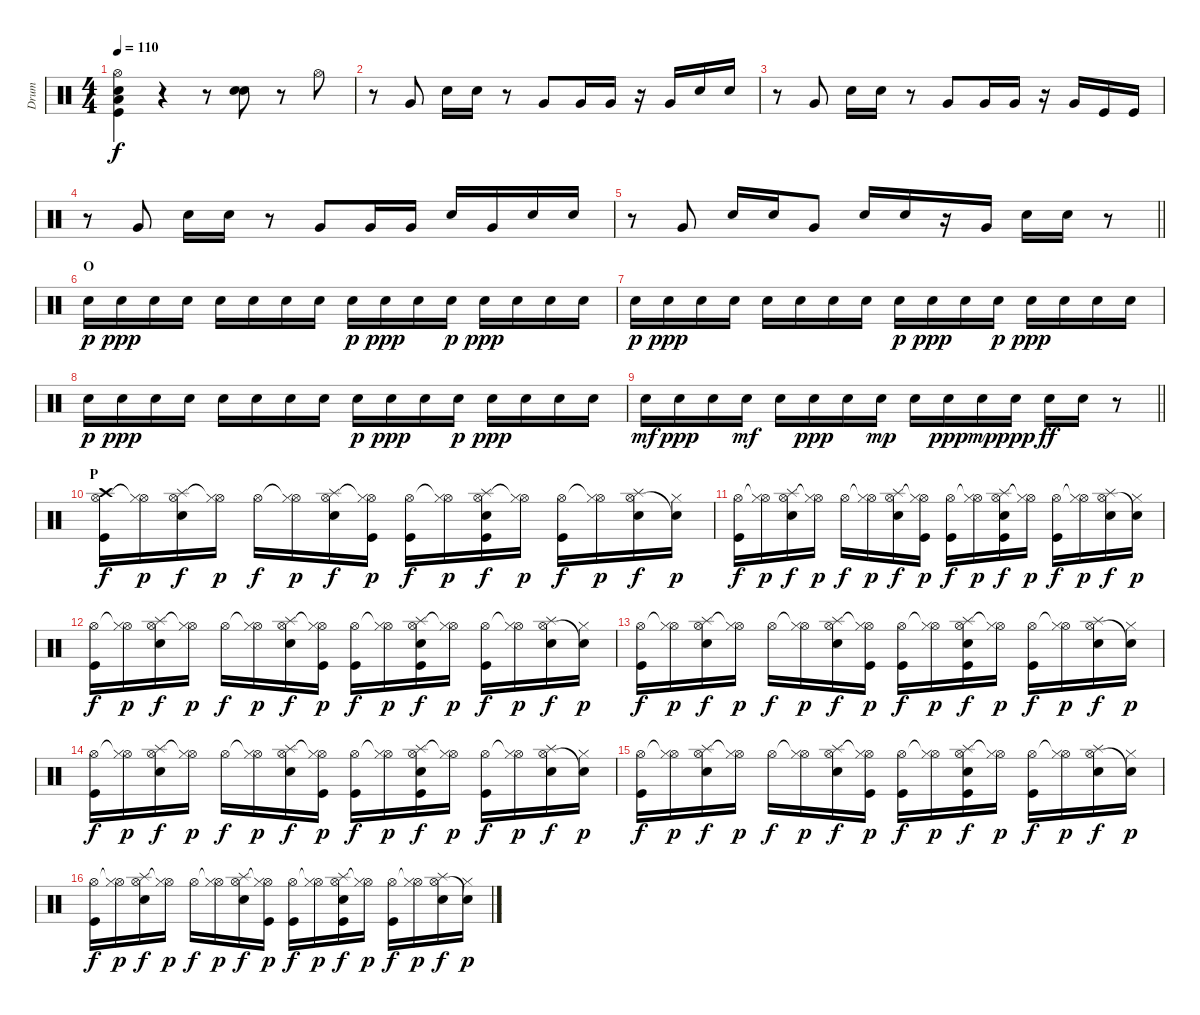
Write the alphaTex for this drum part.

\track ("Drum" "Drum") {instrument percussion}
\staff {score}
\articulation defaults
\ts (4 4)
\tempo 110
\clef neutral
\ks c
("Hi-Hat (open)" "Snare (hit) 2" "Low Tom (hit)" "Kick (hit)").4{dy f} r.4 r.8 ("Snare (hit) 2" "Electric Snare (hit)").8 r.8 "Hi-Hat (open)".8 |
r.8 "Very Low Tom (hit)".8 "Snare (hit) 2".16 "Snare (hit) 2".16 r.8 "Very Low Tom (hit)".8 "Very Low Tom (hit)".16 "Very Low Tom (hit)".16 r.16 "Very Low Tom (hit)".16 "Snare (hit) 2".16 "Snare (hit) 2".16 |
r.8 "Very Low Tom (hit)".8 "Snare (hit) 2".16 "Snare (hit) 2".16 r.8 "Very Low Tom (hit)".8 "Very Low Tom (hit)".16 "Very Low Tom (hit)".16 r.16 "Very Low Tom (hit)".16 "Kick (hit)".16 "Kick (hit)".16 |
r.8 "Very Low Tom (hit)".8 "Snare (hit) 2".16 "Snare (hit) 2".16 r.8 "Very Low Tom (hit)".8 "Very Low Tom (hit)".16 "Very Low Tom (hit)".16 "Snare (hit) 2".16 "Very Low Tom (hit)".16 "Snare (hit) 2".16 "Snare (hit) 2".16 |
\barLineRight lightlight
r.8 "Very Low Tom (hit)".8 "Snare (hit) 2".16 "Snare (hit) 2".16 "Very Low Tom (hit)".8 "Snare (hit) 2".16 "Snare (hit) 2".16 r.16 "Very Low Tom (hit)".16 "Snare (hit) 2".16 "Snare (hit) 2".16 r.8 |
\section ("" "O")
"Snare (hit) 2".16{dy p} "Snare (hit) 2".16{dy ppp} "Snare (hit) 2".16 "Snare (hit) 2".16 "Snare (hit) 2".16 "Snare (hit) 2".16 "Snare (hit) 2".16 "Snare (hit) 2".16 "Snare (hit) 2".16{dy p} "Snare (hit) 2".16{dy ppp} "Snare (hit) 2".16 "Snare (hit) 2".16{dy p} "Snare (hit) 2".16{dy ppp} "Snare (hit) 2".16 "Snare (hit) 2".16 "Snare (hit) 2".16 |
"Snare (hit) 2".16{dy p} "Snare (hit) 2".16{dy ppp} "Snare (hit) 2".16 "Snare (hit) 2".16 "Snare (hit) 2".16 "Snare (hit) 2".16 "Snare (hit) 2".16 "Snare (hit) 2".16 "Snare (hit) 2".16{dy p} "Snare (hit) 2".16{dy ppp} "Snare (hit) 2".16 "Snare (hit) 2".16{dy p} "Snare (hit) 2".16{dy ppp} "Snare (hit) 2".16 "Snare (hit) 2".16 "Snare (hit) 2".16 |
"Snare (hit) 2".16{dy p} "Snare (hit) 2".16{dy ppp} "Snare (hit) 2".16 "Snare (hit) 2".16 "Snare (hit) 2".16 "Snare (hit) 2".16 "Snare (hit) 2".16 "Snare (hit) 2".16 "Snare (hit) 2".16{dy p} "Snare (hit) 2".16{dy ppp} "Snare (hit) 2".16 "Snare (hit) 2".16{dy p} "Snare (hit) 2".16{dy ppp} "Snare (hit) 2".16 "Snare (hit) 2".16 "Snare (hit) 2".16 |
\barLineRight lightlight "Snare (hit) 2".16{dy mf} "Snare (hit) 2".16{dy ppp} "Snare (hit) 2".16 "Snare (hit) 2".16{dy mf} "Snare (hit) 2".16 "Snare (hit) 2".16{dy ppp} "Snare (hit) 2".16 "Snare (hit) 2".16{dy mp} "Snare (hit) 2".16 "Snare (hit) 2".16{dy ppp} "Snare (hit) 2".16{dy mp} "Snare (hit) 2".16{dy ppp} "Snare (hit) 2".16{dy ff} "Snare (hit) 2".16
r.8 |
\section ("" "P")
("Hi-Hat (open)" "Crash high (hit)" "Kick (hit)").16{dy f} ("Hi-Hat (open)"{t} "Hi-Hat (closed)").16{dy p} ("Hi-Hat (open)" "Splash (hit)" "Snare (hit) 2").16{dy f} ("Hi-Hat (open)"{t} "Hi-Hat (closed)").16{dy p} "Hi-Hat (open)".16{dy f} ("Hi-Hat (open)"{t} "Hi-Hat (closed)").16{dy p} ("Hi-Hat (open)" "Splash (hit)" "Snare (hit) 2").16{dy f} ("Hi-Hat (open)"{t} "Hi-Hat (closed)" "Kick (hit)").16{dy p} ("Hi-Hat (open)" "Kick (hit)").16{dy f} ("Hi-Hat (open)"{t} "Hi-Hat (closed)").16{dy p} ("Hi-Hat (open)" "Splash (hit)" "Snare (hit) 2" "Kick (hit)").16{dy f} ("Hi-Hat (open)"{t} "Hi-Hat (closed)").16{dy p} ("Hi-Hat (open)" "Kick (hit)").16{dy f} ("Hi-Hat (open)"{t} "Hi-Hat (closed)").16{dy p} ("Hi-Hat (open)" "Splash (hit)" "Snare (hit) 2").16{dy f} ("Snare (hit)"{t} "Hi-Hat (closed)").16{dy p} |
("Hi-Hat (open)" "Kick (hit)").16{dy f} ("Hi-Hat (open)"{t} "Hi-Hat (closed)").16{dy p} ("Hi-Hat (open)" "Splash (hit)" "Snare (hit) 2").16{dy f} ("Hi-Hat (open)"{t} "Hi-Hat (closed)").16{dy p} "Hi-Hat (open)".16{dy f} ("Hi-Hat (open)"{t} "Hi-Hat (closed)").16{dy p} ("Hi-Hat (open)" "Splash (hit)" "Snare (hit) 2").16{dy f} ("Hi-Hat (open)"{t} "Hi-Hat (closed)" "Kick (hit)").16{dy p} ("Hi-Hat (open)" "Kick (hit)").16{dy f} ("Hi-Hat (open)"{t} "Hi-Hat (closed)").16{dy p} ("Hi-Hat (open)" "Splash (hit)" "Snare (hit) 2" "Kick (hit)").16{dy f} ("Hi-Hat (open)"{t} "Hi-Hat (closed)").16{dy p} ("Hi-Hat (open)" "Kick (hit)").16{dy f} ("Hi-Hat (open)"{t} "Hi-Hat (closed)").16{dy p} ("Hi-Hat (open)" "Splash (hit)" "Snare (hit) 2").16{dy f} ("Snare (hit)"{t} "Hi-Hat (closed)").16{dy p} |
("Hi-Hat (open)" "Kick (hit)").16{dy f} ("Hi-Hat (open)"{t} "Hi-Hat (closed)").16{dy p} ("Hi-Hat (open)" "Splash (hit)" "Snare (hit) 2").16{dy f} ("Hi-Hat (open)"{t} "Hi-Hat (closed)").16{dy p} "Hi-Hat (open)".16{dy f} ("Hi-Hat (open)"{t} "Hi-Hat (closed)").16{dy p} ("Hi-Hat (open)" "Splash (hit)" "Snare (hit) 2").16{dy f} ("Hi-Hat (open)"{t} "Hi-Hat (closed)" "Kick (hit)").16{dy p} ("Hi-Hat (open)" "Kick (hit)").16{dy f} ("Hi-Hat (open)"{t} "Hi-Hat (closed)").16{dy p} ("Hi-Hat (open)" "Splash (hit)" "Snare (hit) 2" "Kick (hit)").16{dy f} ("Hi-Hat (open)"{t} "Hi-Hat (closed)").16{dy p} ("Hi-Hat (open)" "Kick (hit)").16{dy f} ("Hi-Hat (open)"{t} "Hi-Hat (closed)").16{dy p} ("Hi-Hat (open)" "Splash (hit)" "Snare (hit) 2").16{dy f} ("Snare (hit)"{t} "Hi-Hat (closed)").16{dy p} |
("Hi-Hat (open)" "Kick (hit)").16{dy f} ("Hi-Hat (open)"{t} "Hi-Hat (closed)").16{dy p} ("Hi-Hat (open)" "Splash (hit)" "Snare (hit) 2").16{dy f} ("Hi-Hat (open)"{t} "Hi-Hat (closed)").16{dy p} "Hi-Hat (open)".16{dy f} ("Hi-Hat (open)"{t} "Hi-Hat (closed)").16{dy p} ("Hi-Hat (open)" "Splash (hit)" "Snare (hit) 2").16{dy f} ("Hi-Hat (open)"{t} "Hi-Hat (closed)" "Kick (hit)").16{dy p} ("Hi-Hat (open)" "Kick (hit)").16{dy f} ("Hi-Hat (open)"{t} "Hi-Hat (closed)").16{dy p} ("Hi-Hat (open)" "Splash (hit)" "Snare (hit) 2" "Kick (hit)").16{dy f} ("Hi-Hat (open)"{t} "Hi-Hat (closed)").16{dy p} ("Hi-Hat (open)" "Kick (hit)").16{dy f} ("Hi-Hat (open)"{t} "Hi-Hat (closed)").16{dy p} ("Hi-Hat (open)" "Splash (hit)" "Snare (hit) 2").16{dy f} ("Snare (hit)"{t} "Hi-Hat (closed)").16{dy p} |
("Hi-Hat (open)" "Kick (hit)").16{dy f} ("Hi-Hat (open)"{t} "Hi-Hat (closed)").16{dy p} ("Hi-Hat (open)" "Splash (hit)" "Snare (hit) 2").16{dy f} ("Hi-Hat (open)"{t} "Hi-Hat (closed)").16{dy p} "Hi-Hat (open)".16{dy f} ("Hi-Hat (open)"{t} "Hi-Hat (closed)").16{dy p} ("Hi-Hat (open)" "Splash (hit)" "Snare (hit) 2").16{dy f} ("Hi-Hat (open)"{t} "Hi-Hat (closed)" "Kick (hit)").16{dy p} ("Hi-Hat (open)" "Kick (hit)").16{dy f} ("Hi-Hat (open)"{t} "Hi-Hat (closed)").16{dy p} ("Hi-Hat (open)" "Splash (hit)" "Snare (hit) 2" "Kick (hit)").16{dy f} ("Hi-Hat (open)"{t} "Hi-Hat (closed)").16{dy p} ("Hi-Hat (open)" "Kick (hit)").16{dy f} ("Hi-Hat (open)"{t} "Hi-Hat (closed)").16{dy p} ("Hi-Hat (open)" "Splash (hit)" "Snare (hit) 2").16{dy f} ("Snare (hit)"{t} "Hi-Hat (closed)").16{dy p} |
("Hi-Hat (open)" "Kick (hit)").16{dy f} ("Hi-Hat (open)"{t} "Hi-Hat (closed)").16{dy p} ("Hi-Hat (open)" "Splash (hit)" "Snare (hit) 2").16{dy f} ("Hi-Hat (open)"{t} "Hi-Hat (closed)").16{dy p} "Hi-Hat (open)".16{dy f} ("Hi-Hat (open)"{t} "Hi-Hat (closed)").16{dy p} ("Hi-Hat (open)" "Splash (hit)" "Snare (hit) 2").16{dy f} ("Hi-Hat (open)"{t} "Hi-Hat (closed)" "Kick (hit)").16{dy p} ("Hi-Hat (open)" "Kick (hit)").16{dy f} ("Hi-Hat (open)"{t} "Hi-Hat (closed)").16{dy p} ("Hi-Hat (open)" "Splash (hit)" "Snare (hit) 2" "Kick (hit)").16{dy f} ("Hi-Hat (open)"{t} "Hi-Hat (closed)").16{dy p} ("Hi-Hat (open)" "Kick (hit)").16{dy f} ("Hi-Hat (open)"{t} "Hi-Hat (closed)").16{dy p} ("Hi-Hat (open)" "Splash (hit)" "Snare (hit) 2").16{dy f} ("Snare (hit)"{t} "Hi-Hat (closed)").16{dy p} |
("Hi-Hat (open)" "Kick (hit)").16{dy f} ("Hi-Hat (open)"{t} "Hi-Hat (closed)").16{dy p} ("Hi-Hat (open)" "Splash (hit)" "Snare (hit) 2").16{dy f} ("Hi-Hat (open)"{t} "Hi-Hat (closed)").16{dy p} "Hi-Hat (open)".16{dy f} ("Hi-Hat (open)"{t} "Hi-Hat (closed)").16{dy p} ("Hi-Hat (open)" "Splash (hit)" "Snare (hit) 2").16{dy f} ("Hi-Hat (open)"{t} "Hi-Hat (closed)" "Kick (hit)").16{dy p} ("Hi-Hat (open)" "Kick (hit)").16{dy f} ("Hi-Hat (open)"{t} "Hi-Hat (closed)").16{dy p} ("Hi-Hat (open)" "Splash (hit)" "Snare (hit) 2" "Kick (hit)").16{dy f} ("Hi-Hat (open)"{t} "Hi-Hat (closed)").16{dy p} ("Hi-Hat (open)" "Kick (hit)").16{dy f} ("Hi-Hat (open)"{t} "Hi-Hat (closed)").16{dy p} ("Hi-Hat (open)" "Splash (hit)" "Snare (hit) 2").16{dy f} ("Snare (hit)"{t} "Hi-Hat (closed)").16{dy p}
